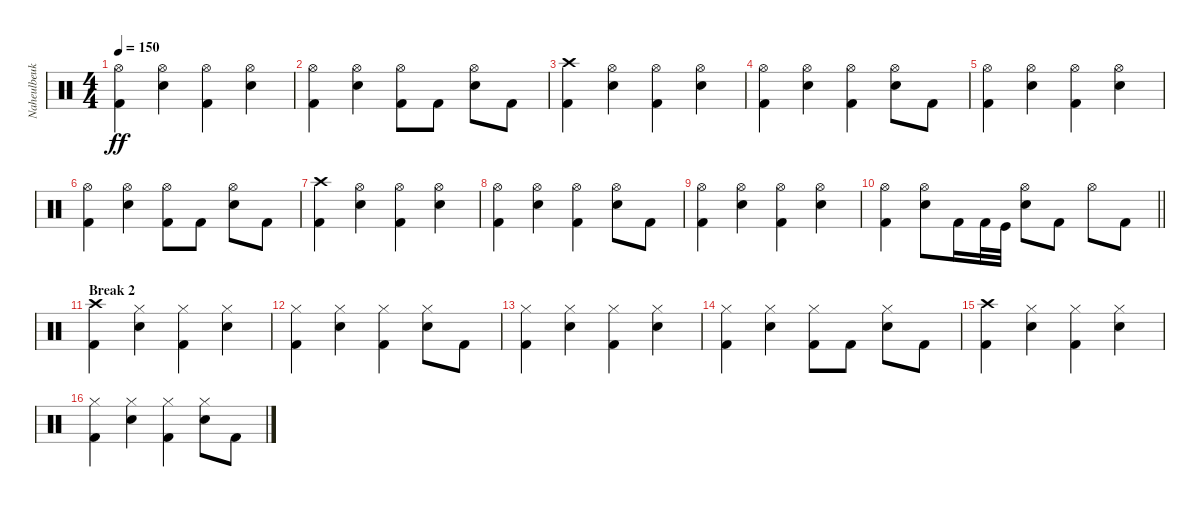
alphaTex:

\track ("Naheulbeuk" "Naheulbeuk") {instrument percussion}
\staff {score}
\articulation defaults
\ts (4 4)
\tempo 150
\clef neutral
\ks c
("Hi-Hat (open)" "Kick (hit) 2").4{dy ff} ("Hi-Hat (open)" "Snare (hit) 2").4 ("Hi-Hat (open)" "Kick (hit) 2").4 ("Hi-Hat (open)" "Snare (hit) 2").4 |
("Hi-Hat (open)" "Kick (hit) 2").4 ("Hi-Hat (open)" "Snare (hit) 2").4 ("Hi-Hat (open)" "Kick (hit) 2").8 "Kick (hit) 2".8 ("Hi-Hat (open)" "Snare (hit) 2").8 "Kick (hit) 2".8 |
("Crash high (hit)" "Kick (hit) 2").4 ("Hi-Hat (open)" "Snare (hit) 2").4 ("Hi-Hat (open)" "Kick (hit) 2").4 ("Hi-Hat (open)" "Snare (hit) 2").4 |
("Hi-Hat (open)" "Kick (hit) 2").4 ("Hi-Hat (open)" "Snare (hit) 2").4 ("Hi-Hat (open)" "Kick (hit) 2").4 ("Hi-Hat (open)" "Snare (hit) 2").8 "Kick (hit) 2".8 |
("Hi-Hat (open)" "Kick (hit) 2").4 ("Hi-Hat (open)" "Snare (hit) 2").4 ("Hi-Hat (open)" "Kick (hit) 2").4 ("Hi-Hat (open)" "Snare (hit) 2").4 |
("Hi-Hat (open)" "Kick (hit) 2").4 ("Hi-Hat (open)" "Snare (hit) 2").4 ("Hi-Hat (open)" "Kick (hit) 2").8 "Kick (hit) 2".8 ("Hi-Hat (open)" "Snare (hit) 2").8 "Kick (hit) 2".8 |
("Crash high (hit)" "Kick (hit) 2").4 ("Hi-Hat (open)" "Snare (hit) 2").4 ("Hi-Hat (open)" "Kick (hit) 2").4 ("Hi-Hat (open)" "Snare (hit) 2").4 |
("Hi-Hat (open)" "Kick (hit) 2").4 ("Hi-Hat (open)" "Snare (hit) 2").4 ("Hi-Hat (open)" "Kick (hit) 2").4 ("Hi-Hat (open)" "Snare (hit) 2").8 "Kick (hit) 2".8 |
("Hi-Hat (open)" "Kick (hit) 2").4 ("Hi-Hat (open)" "Snare (hit) 2").4 ("Hi-Hat (open)" "Kick (hit) 2").4 ("Hi-Hat (open)" "Snare (hit) 2").4 |
\barLineRight lightlight
("Hi-Hat (open)" "Kick (hit) 2").4 ("Hi-Hat (open)" "Snare (hit) 2").8 "Kick (hit) 2".16 "Kick (hit) 2".32 "Kick (hit)".32 ("Hi-Hat (open)" "Snare (hit) 2").8 "Kick (hit) 2".8 "Hi-Hat (open)".8 "Kick (hit) 2".8 |
\section ("" "Break 2")
("Crash high (hit)" "Kick (hit) 2").4 ("Hi-Hat (closed)" "Snare (hit) 2").4 ("Hi-Hat (closed)" "Kick (hit) 2").4 ("Hi-Hat (closed)" "Snare (hit) 2").4 |
("Hi-Hat (closed)" "Kick (hit) 2").4 ("Hi-Hat (closed)" "Snare (hit) 2").4 ("Hi-Hat (closed)" "Kick (hit) 2").4 ("Hi-Hat (closed)" "Snare (hit) 2").8 "Kick (hit) 2".8 |
("Hi-Hat (closed)" "Kick (hit) 2").4 ("Hi-Hat (closed)" "Snare (hit) 2").4 ("Hi-Hat (closed)" "Kick (hit) 2").4 ("Hi-Hat (closed)" "Snare (hit) 2").4 |
("Hi-Hat (closed)" "Kick (hit) 2").4 ("Hi-Hat (closed)" "Snare (hit) 2").4 ("Hi-Hat (closed)" "Kick (hit) 2").8 "Kick (hit) 2".8 ("Hi-Hat (closed)" "Snare (hit) 2").8 "Kick (hit) 2".8 |
("Crash high (hit)" "Kick (hit) 2").4 ("Hi-Hat (closed)" "Snare (hit) 2").4 ("Hi-Hat (closed)" "Kick (hit) 2").4 ("Hi-Hat (closed)" "Snare (hit) 2").4 |
("Hi-Hat (closed)" "Kick (hit) 2").4 ("Hi-Hat (closed)" "Snare (hit) 2").4 ("Hi-Hat (closed)" "Kick (hit) 2").4 ("Hi-Hat (closed)" "Snare (hit) 2").8 "Kick (hit) 2".8
